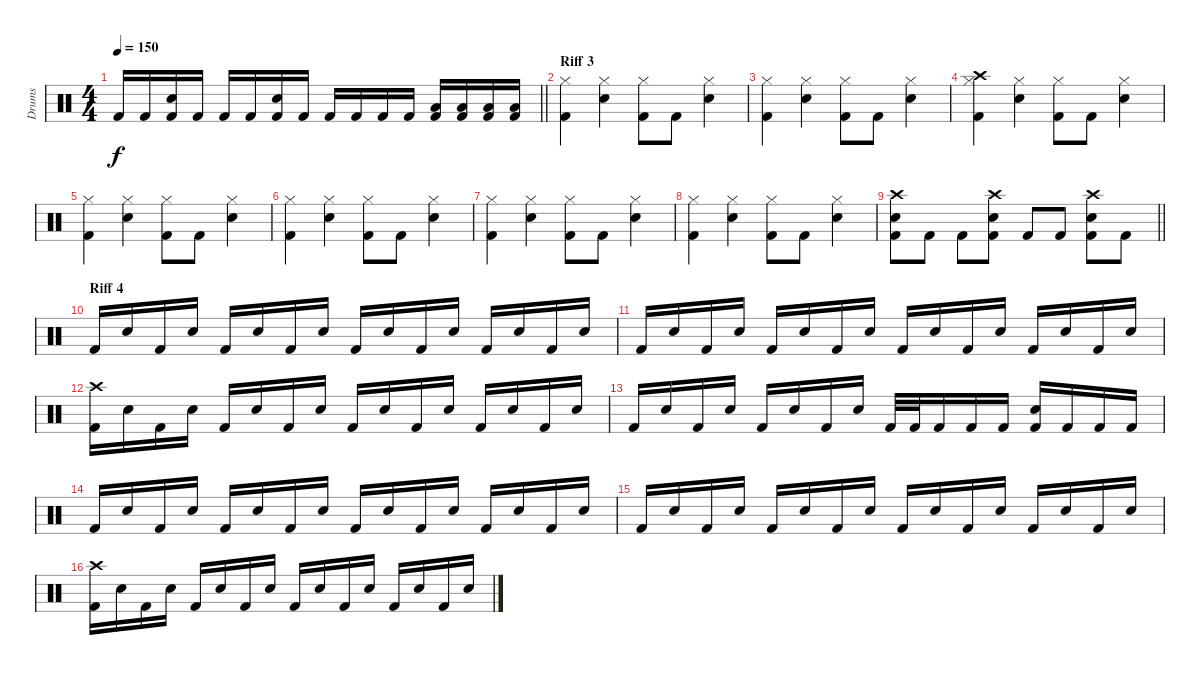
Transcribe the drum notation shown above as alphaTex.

\track ("Drums" "Drums") {instrument percussion}
\staff {score}
\articulation defaults
\ts (4 4)
\tempo 150
\clef neutral
\barLineRight lightlight
\ks c "Kick (hit) 2".16{dy f} "Kick (hit) 2".16
("Snare (hit) 2" "Kick (hit) 2").16 "Kick (hit) 2".16 "Kick (hit) 2".16 "Kick (hit) 2".16 ("Snare (hit) 2" "Kick (hit) 2").16 "Kick (hit) 2".16 "Kick (hit) 2".16 "Kick (hit) 2".16 "Kick (hit) 2".16 "Kick (hit) 2".16 ("Low Tom (hit)" "Kick (hit) 2").16 ("Low Tom (hit)" "Kick (hit) 2").16 ("Low Tom (hit)" "Kick (hit) 2").16 ("Low Tom (hit)" "Kick (hit) 2").16 |
\section ("" "Riff 3")
("Hi-Hat (closed)" "Kick (hit) 2").4 ("Hi-Hat (closed)" "Snare (hit) 2").4 ("Hi-Hat (closed)" "Kick (hit) 2").8 "Kick (hit) 2".8 ("Hi-Hat (closed)" "Snare (hit) 2").4 |
("Hi-Hat (closed)" "Kick (hit) 2").4 ("Hi-Hat (closed)" "Snare (hit) 2").4 ("Hi-Hat (closed)" "Kick (hit) 2").8 "Kick (hit) 2".8 ("Hi-Hat (closed)" "Snare (hit) 2").4 |
("Hi-Hat (closed)" "Crash high (hit)" "Kick (hit) 2").4 ("Hi-Hat (closed)" "Snare (hit) 2").4 ("Hi-Hat (closed)" "Kick (hit) 2").8 "Kick (hit) 2".8 ("Hi-Hat (closed)" "Snare (hit) 2").4 |
("Hi-Hat (closed)" "Kick (hit) 2").4 ("Hi-Hat (closed)" "Snare (hit) 2").4 ("Hi-Hat (closed)" "Kick (hit) 2").8 "Kick (hit) 2".8 ("Hi-Hat (closed)" "Snare (hit) 2").4 |
("Hi-Hat (closed)" "Kick (hit) 2").4 ("Hi-Hat (closed)" "Snare (hit) 2").4 ("Hi-Hat (closed)" "Kick (hit) 2").8 "Kick (hit) 2".8 ("Hi-Hat (closed)" "Snare (hit) 2").4 |
("Hi-Hat (closed)" "Kick (hit) 2").4 ("Hi-Hat (closed)" "Snare (hit) 2").4 ("Hi-Hat (closed)" "Kick (hit) 2").8 "Kick (hit) 2".8 ("Hi-Hat (closed)" "Snare (hit) 2").4 |
("Hi-Hat (closed)" "Kick (hit) 2").4 ("Hi-Hat (closed)" "Snare (hit) 2").4 ("Hi-Hat (closed)" "Kick (hit) 2").8 "Kick (hit) 2".8 ("Hi-Hat (closed)" "Snare (hit) 2").4 |
\barLineRight lightlight
("Crash high (hit)" "Snare (hit) 2" "Kick (hit) 2").8 "Kick (hit) 2".8 "Kick (hit) 2".8 ("Crash high (hit)" "Snare (hit) 2" "Kick (hit) 2").8 "Kick (hit) 2".8 "Kick (hit) 2".8 ("Crash high (hit)" "Snare (hit) 2" "Kick (hit) 2").8 "Kick (hit) 2".8 |
\section ("" "Riff 4")
"Kick (hit) 2".16 "Snare (hit) 2".16 "Kick (hit) 2".16 "Snare (hit) 2".16 "Kick (hit) 2".16 "Snare (hit) 2".16 "Kick (hit) 2".16 "Snare (hit) 2".16 "Kick (hit) 2".16 "Snare (hit) 2".16 "Kick (hit) 2".16 "Snare (hit) 2".16 "Kick (hit) 2".16 "Snare (hit) 2".16 "Kick (hit) 2".16 "Snare (hit) 2".16 |
"Kick (hit) 2".16 "Snare (hit) 2".16 "Kick (hit) 2".16 "Snare (hit) 2".16 "Kick (hit) 2".16 "Snare (hit) 2".16 "Kick (hit) 2".16 "Snare (hit) 2".16 "Kick (hit) 2".16 "Snare (hit) 2".16 "Kick (hit) 2".16 "Snare (hit) 2".16 "Kick (hit) 2".16 "Snare (hit) 2".16 "Kick (hit) 2".16 "Snare (hit) 2".16 |
("Crash high (hit)" "Kick (hit) 2").16 "Snare (hit) 2".16 "Kick (hit) 2".16 "Snare (hit) 2".16 "Kick (hit) 2".16 "Snare (hit) 2".16 "Kick (hit) 2".16 "Snare (hit) 2".16 "Kick (hit) 2".16 "Snare (hit) 2".16 "Kick (hit) 2".16 "Snare (hit) 2".16 "Kick (hit) 2".16 "Snare (hit) 2".16 "Kick (hit) 2".16 "Snare (hit) 2".16 |
"Kick (hit) 2".16 "Snare (hit) 2".16 "Kick (hit) 2".16 "Snare (hit) 2".16 "Kick (hit) 2".16 "Snare (hit) 2".16 "Kick (hit) 2".16 "Snare (hit) 2".16 "Kick (hit) 2".32 "Kick (hit) 2".32 "Kick (hit) 2".16 "Kick (hit) 2".16 "Kick (hit) 2".16 ("Snare (hit) 2" "Kick (hit) 2").16 "Kick (hit) 2".16 "Kick (hit) 2".16 "Kick (hit) 2".16 |
"Kick (hit) 2".16 "Snare (hit) 2".16 "Kick (hit) 2".16 "Snare (hit) 2".16 "Kick (hit) 2".16 "Snare (hit) 2".16 "Kick (hit) 2".16 "Snare (hit) 2".16 "Kick (hit) 2".16 "Snare (hit) 2".16 "Kick (hit) 2".16 "Snare (hit) 2".16 "Kick (hit) 2".16 "Snare (hit) 2".16 "Kick (hit) 2".16 "Snare (hit) 2".16 |
"Kick (hit) 2".16 "Snare (hit) 2".16 "Kick (hit) 2".16 "Snare (hit) 2".16 "Kick (hit) 2".16 "Snare (hit) 2".16 "Kick (hit) 2".16 "Snare (hit) 2".16 "Kick (hit) 2".16 "Snare (hit) 2".16 "Kick (hit) 2".16 "Snare (hit) 2".16 "Kick (hit) 2".16 "Snare (hit) 2".16 "Kick (hit) 2".16 "Snare (hit) 2".16 |
("Crash high (hit)" "Kick (hit) 2").16 "Snare (hit) 2".16 "Kick (hit) 2".16 "Snare (hit) 2".16 "Kick (hit) 2".16 "Snare (hit) 2".16 "Kick (hit) 2".16 "Snare (hit) 2".16 "Kick (hit) 2".16 "Snare (hit) 2".16 "Kick (hit) 2".16 "Snare (hit) 2".16 "Kick (hit) 2".16 "Snare (hit) 2".16 "Kick (hit) 2".16 "Snare (hit) 2".16
